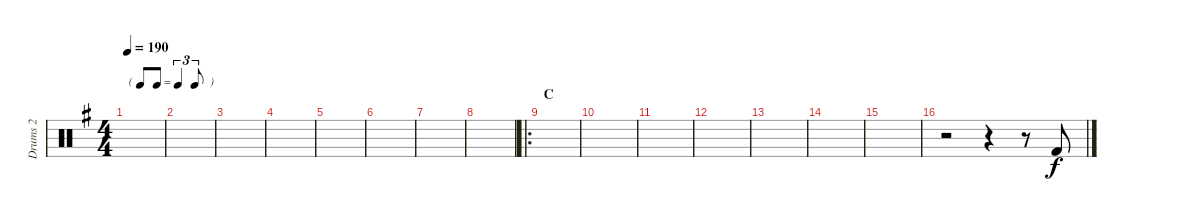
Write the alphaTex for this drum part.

\track ("Drums 2" "Drums 2") {instrument percussion}
\staff {score}
\articulation defaults
\ts (4 4)
\tf triplet8th
\tempo 190
\clef neutral
\ks g
|
|
|
|
|
|
|
|
\ro
\section ("" "C")
|
|
|
|
|
|
|
r.2 r.4 r.8 "Kick (hit) 2".8
